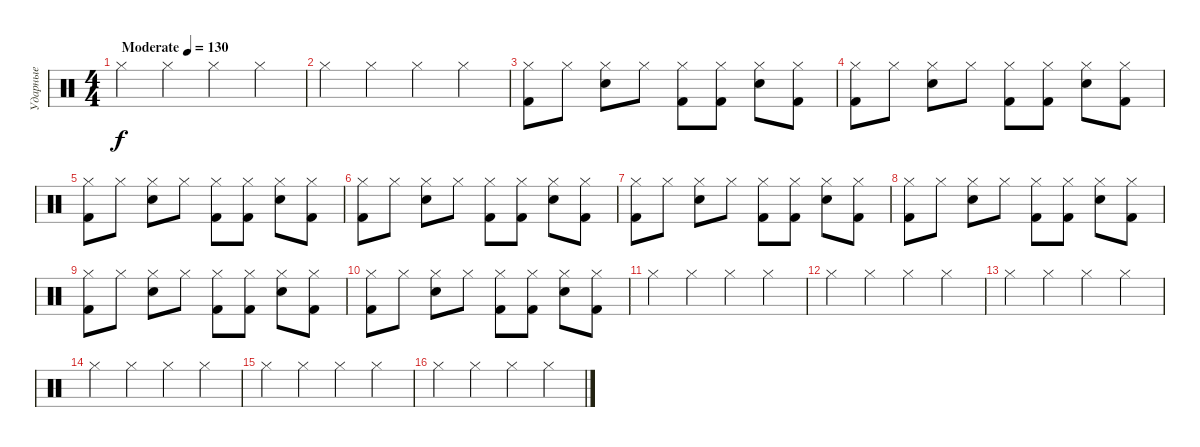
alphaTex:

\track ("Ударные" "Ударные") {instrument percussion}
\staff {score}
\articulation defaults
\ts (4 4)
\tempo (130 "Moderate")
\clef neutral
\ks c "Hi-Hat (closed)".4{dy f} "Hi-Hat (closed)".4 "Hi-Hat (closed)".4 "Hi-Hat (closed)".4
|
"Hi-Hat (closed)".4 "Hi-Hat (closed)".4 "Hi-Hat (closed)".4 "Hi-Hat (closed)".4 |
("Hi-Hat (closed)" "Kick (hit) 2").8 "Hi-Hat (closed)".8 ("Hi-Hat (closed)" "Snare (hit) 2").8 "Hi-Hat (closed)".8 ("Hi-Hat (closed)" "Kick (hit) 2").8 ("Hi-Hat (closed)" "Kick (hit) 2").8 ("Hi-Hat (closed)" "Snare (hit) 2").8 ("Hi-Hat (closed)" "Kick (hit) 2").8 |
("Hi-Hat (closed)" "Kick (hit) 2").8 "Hi-Hat (closed)".8 ("Hi-Hat (closed)" "Snare (hit) 2").8 "Hi-Hat (closed)".8 ("Hi-Hat (closed)" "Kick (hit) 2").8 ("Hi-Hat (closed)" "Kick (hit) 2").8 ("Hi-Hat (closed)" "Snare (hit) 2").8 ("Hi-Hat (closed)" "Kick (hit) 2").8 |
("Hi-Hat (closed)" "Kick (hit) 2").8 "Hi-Hat (closed)".8 ("Hi-Hat (closed)" "Snare (hit) 2").8 "Hi-Hat (closed)".8 ("Hi-Hat (closed)" "Kick (hit) 2").8 ("Hi-Hat (closed)" "Kick (hit) 2").8 ("Hi-Hat (closed)" "Snare (hit) 2").8 ("Hi-Hat (closed)" "Kick (hit) 2").8 |
("Hi-Hat (closed)" "Kick (hit) 2").8 "Hi-Hat (closed)".8 ("Hi-Hat (closed)" "Snare (hit) 2").8 "Hi-Hat (closed)".8 ("Hi-Hat (closed)" "Kick (hit) 2").8 ("Hi-Hat (closed)" "Kick (hit) 2").8 ("Hi-Hat (closed)" "Snare (hit) 2").8 ("Hi-Hat (closed)" "Kick (hit) 2").8 |
("Hi-Hat (closed)" "Kick (hit) 2").8 "Hi-Hat (closed)".8 ("Hi-Hat (closed)" "Snare (hit) 2").8 "Hi-Hat (closed)".8 ("Hi-Hat (closed)" "Kick (hit) 2").8 ("Hi-Hat (closed)" "Kick (hit) 2").8 ("Hi-Hat (closed)" "Snare (hit) 2").8 ("Hi-Hat (closed)" "Kick (hit) 2").8 |
("Hi-Hat (closed)" "Kick (hit) 2").8 "Hi-Hat (closed)".8 ("Hi-Hat (closed)" "Snare (hit) 2").8 "Hi-Hat (closed)".8 ("Hi-Hat (closed)" "Kick (hit) 2").8 ("Hi-Hat (closed)" "Kick (hit) 2").8 ("Hi-Hat (closed)" "Snare (hit) 2").8 ("Hi-Hat (closed)" "Kick (hit) 2").8 |
("Hi-Hat (closed)" "Kick (hit) 2").8 "Hi-Hat (closed)".8 ("Hi-Hat (closed)" "Snare (hit) 2").8 "Hi-Hat (closed)".8 ("Hi-Hat (closed)" "Kick (hit) 2").8 ("Hi-Hat (closed)" "Kick (hit) 2").8 ("Hi-Hat (closed)" "Snare (hit) 2").8 ("Hi-Hat (closed)" "Kick (hit) 2").8 |
("Hi-Hat (closed)" "Kick (hit) 2").8 "Hi-Hat (closed)".8 ("Hi-Hat (closed)" "Snare (hit) 2").8 "Hi-Hat (closed)".8 ("Hi-Hat (closed)" "Kick (hit) 2").8 ("Hi-Hat (closed)" "Kick (hit) 2").8 ("Hi-Hat (closed)" "Snare (hit) 2").8 ("Hi-Hat (closed)" "Kick (hit) 2").8 |
"Hi-Hat (closed)".4 "Hi-Hat (closed)".4 "Hi-Hat (closed)".4 "Hi-Hat (closed)".4 |
"Hi-Hat (closed)".4 "Hi-Hat (closed)".4 "Hi-Hat (closed)".4 "Hi-Hat (closed)".4 |
"Hi-Hat (closed)".4 "Hi-Hat (closed)".4 "Hi-Hat (closed)".4 "Hi-Hat (closed)".4 |
"Hi-Hat (closed)".4 "Hi-Hat (closed)".4 "Hi-Hat (closed)".4 "Hi-Hat (closed)".4 |
"Hi-Hat (closed)".4 "Hi-Hat (closed)".4 "Hi-Hat (closed)".4 "Hi-Hat (closed)".4 |
"Hi-Hat (closed)".4 "Hi-Hat (closed)".4 "Hi-Hat (closed)".4 "Hi-Hat (closed)".4
